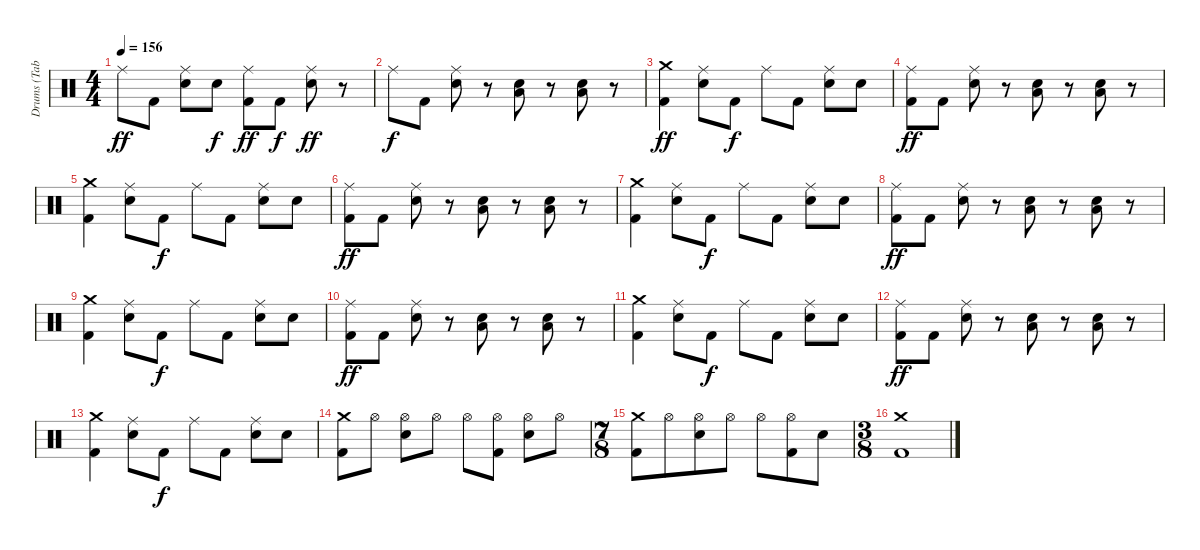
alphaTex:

\track ("Drums (Tab By Drumminger)" "Drums (Tab") {instrument percussion}
\staff {score}
\articulation defaults
\ts (4 4)
\tempo 156
\clef neutral
\ks c "Ride (middle)".8{dy ff} "Kick (hit) 2".8
("Ride (middle)" "Snare (hit) 2").8 "Snare (hit) 2".8{dy f} ("Ride (middle)" "Kick (hit) 2").8{dy ff} "Kick (hit) 2".8{dy f} ("Ride (middle)" "Snare (hit) 2").8{dy ff} r.8 |
"Ride (middle)".8{dy f} "Kick (hit) 2".8 ("Ride (middle)" "Snare (hit) 2").8 r.8 ("Low Floor Tom (hit)" "Snare (hit) 2").8 r.8 ("Low Floor Tom (hit)" "Snare (hit) 2").8 r.8 |
("Crash medium (hit)" "Kick (hit) 2").4{dy ff} ("Ride (middle)" "Snare (hit) 2").8 "Kick (hit) 2".8{dy f} "Ride (middle)".8 "Kick (hit) 2".8 ("Ride (middle)" "Snare (hit) 2").8 "Snare (hit) 2".8 |
("Ride (middle)" "Kick (hit) 2").8{dy ff} "Kick (hit) 2".8 ("Ride (middle)" "Snare (hit) 2").8 r.8 ("Low Floor Tom (hit)" "Snare (hit) 2").8 r.8 ("Low Floor Tom (hit)" "Snare (hit) 2").8 r.8 |
("Crash medium (hit)" "Kick (hit) 2").4 ("Ride (middle)" "Snare (hit) 2").8 "Kick (hit) 2".8{dy f} "Ride (middle)".8 "Kick (hit) 2".8 ("Ride (middle)" "Snare (hit) 2").8 "Snare (hit) 2".8 |
("Ride (middle)" "Kick (hit) 2").8{dy ff} "Kick (hit) 2".8 ("Ride (middle)" "Snare (hit) 2").8 r.8 ("Low Floor Tom (hit)" "Snare (hit) 2").8 r.8 ("Low Floor Tom (hit)" "Snare (hit) 2").8 r.8 |
("Crash medium (hit)" "Kick (hit) 2").4 ("Ride (middle)" "Snare (hit) 2").8 "Kick (hit) 2".8{dy f} "Ride (middle)".8 "Kick (hit) 2".8 ("Ride (middle)" "Snare (hit) 2").8 "Snare (hit) 2".8 |
("Ride (middle)" "Kick (hit) 2").8{dy ff} "Kick (hit) 2".8 ("Ride (middle)" "Snare (hit) 2").8 r.8 ("Low Floor Tom (hit)" "Snare (hit) 2").8 r.8 ("Low Floor Tom (hit)" "Snare (hit) 2").8 r.8 |
("Crash medium (hit)" "Kick (hit) 2").4 ("Ride (middle)" "Snare (hit) 2").8 "Kick (hit) 2".8{dy f} "Ride (middle)".8 "Kick (hit) 2".8 ("Ride (middle)" "Snare (hit) 2").8 "Snare (hit) 2".8 |
("Ride (middle)" "Kick (hit) 2").8{dy ff} "Kick (hit) 2".8 ("Ride (middle)" "Snare (hit) 2").8 r.8 ("Low Floor Tom (hit)" "Snare (hit) 2").8 r.8 ("Low Floor Tom (hit)" "Snare (hit) 2").8 r.8 |
("Crash medium (hit)" "Kick (hit) 2").4 ("Ride (middle)" "Snare (hit) 2").8 "Kick (hit) 2".8{dy f} "Ride (middle)".8 "Kick (hit) 2".8 ("Ride (middle)" "Snare (hit) 2").8 "Snare (hit) 2".8 |
("Ride (middle)" "Kick (hit) 2").8{dy ff} "Kick (hit) 2".8 ("Ride (middle)" "Snare (hit) 2").8 r.8 ("Low Floor Tom (hit)" "Snare (hit) 2").8 r.8 ("Low Floor Tom (hit)" "Snare (hit) 2").8 r.8 |
("Crash medium (hit)" "Kick (hit) 2").4 ("Ride (middle)" "Snare (hit) 2").8 "Kick (hit) 2".8{dy f} "Ride (middle)".8 "Kick (hit) 2".8 ("Ride (middle)" "Snare (hit) 2").8 "Snare (hit) 2".8 |
("Crash medium (hit)" "Kick (hit) 2").8 "Hi-Hat (open)".8 ("Hi-Hat (open)" "Snare (hit) 2").8 "Hi-Hat (open)".8 "Hi-Hat (open)".8 ("Hi-Hat (open)" "Kick (hit) 2").8 ("Hi-Hat (open)" "Snare (hit) 2").8 "Hi-Hat (open)".8 |
\ts (7 8)
("Crash medium (hit)" "Kick (hit) 2").8 "Hi-Hat (open)".8 ("Hi-Hat (open)" "Snare (hit) 2").8 "Hi-Hat (open)".8 "Hi-Hat (open)".8 ("Hi-Hat (open)" "Kick (hit) 2").8 "Snare (hit) 2".8 |
\ts (3 8)
("Crash medium (hit)" "Kick (hit) 2").1
